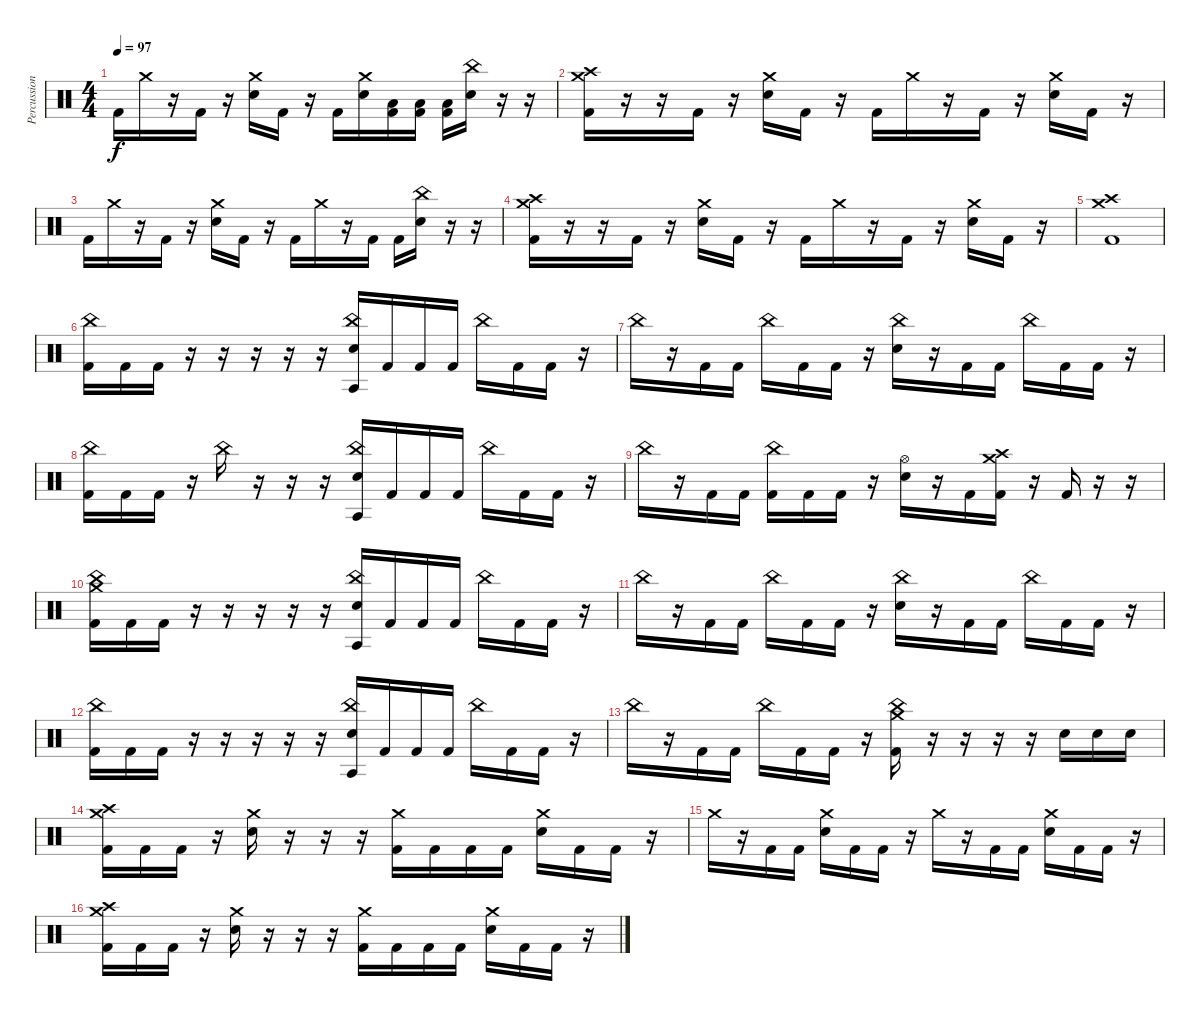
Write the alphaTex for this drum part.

\track ("Percussion" "Percussion") {instrument percussion}
\staff {score}
\articulation defaults
\ts (4 4)
\tempo 97
\clef neutral
\ks c "Kick (hit) 2".16{dy f} "Crash medium (hit)".16
r.16 "Kick (hit) 2".16 r.16 ("Crash medium (hit)" "Snare (hit) 2").16 "Kick (hit) 2".16 r.16 "Kick (hit) 2".16 ("Crash medium (hit)" "Snare (hit) 2").16 ("Low Tom (hit)" "Kick (hit) 2").16 ("Low Tom (hit)" "Kick (hit) 2").16 ("Low Tom (hit)" "Kick (hit) 2").16 ("China (hit)" "Snare (hit) 2").16 r.16 r.16 |
("Crash medium (hit)" "Crash high (hit)" "Kick (hit) 2").16 r.16 r.16 "Kick (hit) 2".16 r.16 ("Crash medium (hit)" "Snare (hit) 2").16 "Kick (hit) 2".16 r.16 "Kick (hit) 2".16 "Crash medium (hit)".16 r.16 "Kick (hit) 2".16 r.16 ("Crash medium (hit)" "Snare (hit) 2").16 "Kick (hit) 2".16 r.16 |
"Kick (hit) 2".16 "Crash medium (hit)".16 r.16 "Kick (hit) 2".16 r.16 ("Crash medium (hit)" "Snare (hit) 2").16 "Kick (hit) 2".16 r.16 "Kick (hit) 2".16 "Crash medium (hit)".16 r.16 "Kick (hit) 2".16 "Kick (hit) 2".16 ("China (hit)" "Snare (hit) 2").16 r.16 r.16 |
("Crash medium (hit)" "Crash high (hit)" "Kick (hit) 2").16 r.16 r.16 "Kick (hit) 2".16 r.16 ("Crash medium (hit)" "Snare (hit) 2").16 "Kick (hit) 2".16 r.16 "Kick (hit) 2".16 "Crash medium (hit)".16 r.16 "Kick (hit) 2".16 r.16 ("Crash medium (hit)" "Snare (hit) 2").16 "Kick (hit) 2".16 r.16 |
("Crash medium (hit)" "Crash high (hit)" "Kick (hit) 2").1 |
("China (hit)" "Kick (hit) 2").16 "Kick (hit) 2".16 "Kick (hit) 2".16 r.16 r.16 r.16 r.16 r.16 ("China (hit)" "Agogo tow (hit)" "Snare (hit) 2").16 "Kick (hit) 2".16 "Kick (hit) 2".16 "Kick (hit) 2".16 "China (hit)".16 "Kick (hit) 2".16 "Kick (hit) 2".16 r.16 |
"China (hit)".16 r.16 "Kick (hit) 2".16 "Kick (hit) 2".16 "China (hit)".16 "Kick (hit) 2".16 "Kick (hit) 2".16 r.16 ("China (hit)" "Snare (hit) 2").16 r.16 "Kick (hit) 2".16 "Kick (hit) 2".16 "China (hit)".16 "Kick (hit) 2".16 "Kick (hit) 2".16 r.16 |
("China (hit)" "Kick (hit) 2").16 "Kick (hit) 2".16 "Kick (hit) 2".16 r.16 "China (hit)".16 r.16 r.16 r.16 ("China (hit)" "Agogo tow (hit)" "Snare (hit) 2").16 "Kick (hit) 2".16 "Kick (hit) 2".16 "Kick (hit) 2".16 "China (hit)".16 "Kick (hit) 2".16 "Kick (hit) 2".16 r.16 |
"China (hit)".16 r.16 "Kick (hit) 2".16 "Kick (hit) 2".16 ("China (hit)" "Kick (hit) 2").16 "Kick (hit) 2".16 "Kick (hit) 2".16 r.16 ("Hi-Hat (open)" "Snare (hit) 2").16 r.16 "Kick (hit) 2".16 ("Crash high (hit)" "Crash medium (hit)" "Kick (hit) 2").16 r.16 "Kick (hit) 2".16 r.16 r.16 |
("China (hit)" "Crash medium (hit)" "Kick (hit) 2").16 "Kick (hit) 2".16 "Kick (hit) 2".16 r.16 r.16 r.16 r.16 r.16 ("China (hit)" "Agogo tow (hit)" "Snare (hit) 2").16 "Kick (hit) 2".16 "Kick (hit) 2".16 "Kick (hit) 2".16 "China (hit)".16 "Kick (hit) 2".16 "Kick (hit) 2".16 r.16 |
"China (hit)".16 r.16 "Kick (hit) 2".16 "Kick (hit) 2".16 "China (hit)".16 "Kick (hit) 2".16 "Kick (hit) 2".16 r.16 ("China (hit)" "Snare (hit) 2").16 r.16 "Kick (hit) 2".16 "Kick (hit) 2".16 "China (hit)".16 "Kick (hit) 2".16 "Kick (hit) 2".16 r.16 |
("China (hit)" "Kick (hit) 2").16 "Kick (hit) 2".16 "Kick (hit) 2".16 r.16 r.16 r.16 r.16 r.16 ("China (hit)" "Agogo tow (hit)" "Snare (hit) 2").16 "Kick (hit) 2".16 "Kick (hit) 2".16 "Kick (hit) 2".16 "China (hit)".16 "Kick (hit) 2".16 "Kick (hit) 2".16 r.16 |
"China (hit)".16 r.16 "Kick (hit) 2".16 "Kick (hit) 2".16 "China (hit)".16 "Kick (hit) 2".16 "Kick (hit) 2".16 r.16 ("China (hit)" "Crash medium (hit)" "Kick (hit) 2").16 r.16 r.16 r.16 r.16 "Snare (hit) 2".16 "Snare (hit) 2".16 "Snare (hit) 2".16 |
("Crash medium (hit)" "Crash high (hit)" "Kick (hit) 2").16 "Kick (hit) 2".16 "Kick (hit) 2".16 r.16 ("Crash medium (hit)" "Snare (hit) 2").16 r.16 r.16 r.16 ("Crash medium (hit)" "Kick (hit) 2").16 "Kick (hit) 2".16 "Kick (hit) 2".16 "Kick (hit) 2".16 ("Crash medium (hit)" "Snare (hit) 2").16 "Kick (hit) 2".16 "Kick (hit) 2".16 r.16 |
"Crash medium (hit)".16 r.16 "Kick (hit) 2".16 "Kick (hit) 2".16 ("Crash medium (hit)" "Snare (hit) 2").16 "Kick (hit) 2".16 "Kick (hit) 2".16 r.16 "Crash medium (hit)".16 r.16 "Kick (hit) 2".16 "Kick (hit) 2".16 ("Crash medium (hit)" "Snare (hit) 2").16 "Kick (hit) 2".16 "Kick (hit) 2".16 r.16 |
("Crash medium (hit)" "Crash high (hit)" "Kick (hit) 2").16 "Kick (hit) 2".16 "Kick (hit) 2".16 r.16 ("Crash medium (hit)" "Snare (hit) 2").16 r.16 r.16 r.16 ("Crash medium (hit)" "Kick (hit) 2").16 "Kick (hit) 2".16 "Kick (hit) 2".16 "Kick (hit) 2".16 ("Crash medium (hit)" "Snare (hit) 2").16 "Kick (hit) 2".16 "Kick (hit) 2".16 r.16
